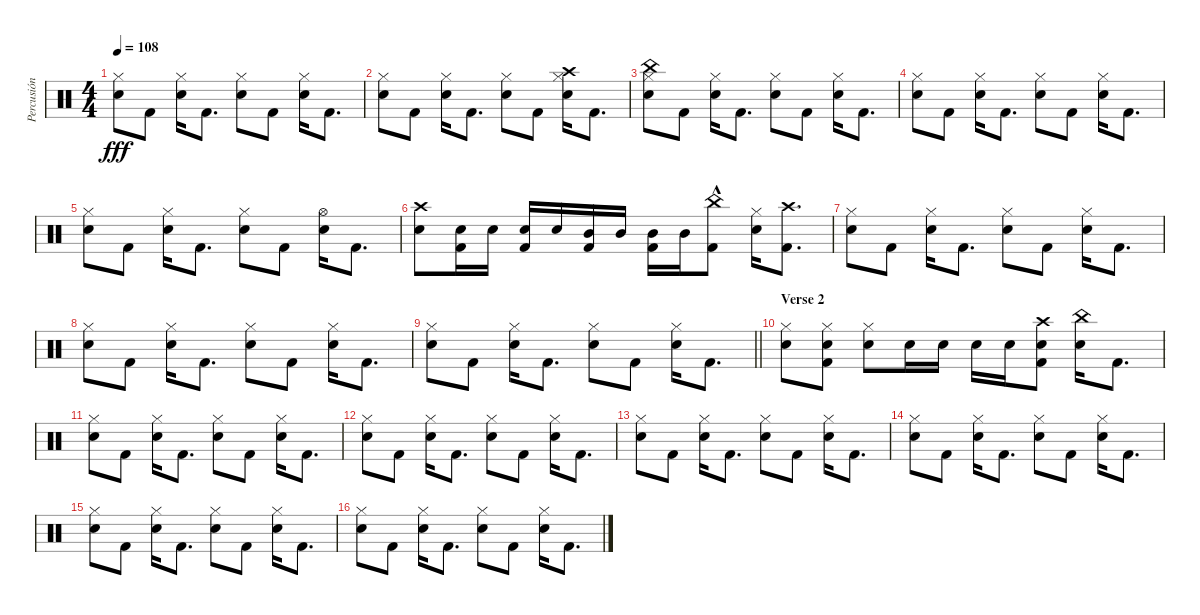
\track ("Percusión" "Percusión") {instrument percussion}
\staff {score}
\articulation defaults
\ts (4 4)
\tempo 108
\clef neutral
\ks c
("Snare (hit) 2" "Hi-Hat (closed)").8{dy fff} "Kick (hit) 2".8 ("Snare (hit) 2" "Hi-Hat (closed)").16 "Kick (hit) 2".8{d} ("Snare (hit) 2" "Hi-Hat (closed)").8 "Kick (hit) 2".8 ("Snare (hit) 2" "Hi-Hat (closed)").16 "Kick (hit) 2".8{d} |
("Snare (hit) 2" "Hi-Hat (closed)").8 "Kick (hit) 2".8 ("Snare (hit) 2" "Hi-Hat (closed)").16 "Kick (hit) 2".8{d} ("Snare (hit) 2" "Hi-Hat (closed)").8 "Kick (hit) 2".8 ("Snare (hit) 2" "Hi-Hat (closed)" "Crash high (hit)").16 "Kick (hit) 2".8{d} |
("Snare (hit) 2" "Hi-Hat (closed)" "China (hit)").8 "Kick (hit) 2".8 ("Snare (hit) 2" "Hi-Hat (closed)").16 "Kick (hit) 2".8{d} ("Snare (hit) 2" "Hi-Hat (closed)").8 "Kick (hit) 2".8 ("Snare (hit) 2" "Hi-Hat (closed)").16 "Kick (hit) 2".8{d} |
("Snare (hit) 2" "Hi-Hat (closed)").8 "Kick (hit) 2".8 ("Snare (hit) 2" "Hi-Hat (closed)").16 "Kick (hit) 2".8{d} ("Snare (hit) 2" "Hi-Hat (closed)").8 "Kick (hit) 2".8 ("Snare (hit) 2" "Hi-Hat (closed)").16 "Kick (hit) 2".8{d} |
("Snare (hit) 2" "Hi-Hat (closed)").8 "Kick (hit) 2".8 ("Snare (hit) 2" "Hi-Hat (closed)").16 "Kick (hit) 2".8{d} ("Snare (hit) 2" "Hi-Hat (closed)").8 "Kick (hit) 2".8 ("Snare (hit) 2" "Hi-Hat (open)").16 "Kick (hit) 2".8{d} |
("Snare (hit) 2" "Crash high (hit)").8 ("Snare (hit) 2" "Kick (hit) 2").16 "Snare (hit) 2".16 ("Snare (hit) 2" "Kick (hit) 2").16 "Snare (hit) 2".16 ("Mid Tom (hit)" "Kick (hit) 2").16 "Mid Tom (hit)".16 ("Mid Tom (hit)" "Kick (hit) 2").16 "Mid Tom (hit)".16 ("China (hit)"{hac} "Kick (hit) 2").8 ("Snare (hit) 2" "Hi-Hat (closed)").16 ("Kick (hit) 2" "Crash high (hit)").8{d} |
("Snare (hit) 2" "Hi-Hat (closed)").8 "Kick (hit) 2".8 ("Snare (hit) 2" "Hi-Hat (closed)").16 "Kick (hit) 2".8{d} ("Snare (hit) 2" "Hi-Hat (closed)").8 "Kick (hit) 2".8 ("Snare (hit) 2" "Hi-Hat (closed)").16 "Kick (hit) 2".8{d} |
("Snare (hit) 2" "Hi-Hat (closed)").8 "Kick (hit) 2".8 ("Snare (hit) 2" "Hi-Hat (closed)").16 "Kick (hit) 2".8{d} ("Snare (hit) 2" "Hi-Hat (closed)").8 "Kick (hit) 2".8 ("Snare (hit) 2" "Hi-Hat (closed)").16 "Kick (hit) 2".8{d} |
\barLineRight lightlight
("Snare (hit) 2" "Hi-Hat (closed)").8 "Kick (hit) 2".8 ("Snare (hit) 2" "Hi-Hat (closed)").16 "Kick (hit) 2".8{d} ("Snare (hit) 2" "Hi-Hat (closed)").8 "Kick (hit) 2".8 ("Snare (hit) 2" "Hi-Hat (closed)").16 "Kick (hit) 2".8{d} |
\section ("" "Verse 2")
("Snare (hit) 2" "Hi-Hat (closed)").8 ("Snare (hit) 2" "Hi-Hat (closed)" "Kick (hit) 2").8 ("Snare (hit) 2" "Hi-Hat (closed)").8 "Snare (hit) 2".16 "Snare (hit) 2".16 "Snare (hit) 2".16 "Snare (hit) 2".16 ("Snare (hit) 2" "Crash high (hit)" "Kick (hit) 2").8 ("Snare (hit) 2" "China (hit)").16 "Kick (hit) 2".8{d} |
("Snare (hit) 2" "Hi-Hat (closed)").8 "Kick (hit) 2".8 ("Snare (hit) 2" "Hi-Hat (closed)").16 "Kick (hit) 2".8{d} ("Snare (hit) 2" "Hi-Hat (closed)").8 "Kick (hit) 2".8 ("Snare (hit) 2" "Hi-Hat (closed)").16 "Kick (hit) 2".8{d} |
("Snare (hit) 2" "Hi-Hat (closed)").8 "Kick (hit) 2".8 ("Snare (hit) 2" "Hi-Hat (closed)").16 "Kick (hit) 2".8{d} ("Snare (hit) 2" "Hi-Hat (closed)").8 "Kick (hit) 2".8 ("Snare (hit) 2" "Hi-Hat (closed)").16 "Kick (hit) 2".8{d} |
("Snare (hit) 2" "Hi-Hat (closed)").8 "Kick (hit) 2".8 ("Snare (hit) 2" "Hi-Hat (closed)").16 "Kick (hit) 2".8{d} ("Snare (hit) 2" "Hi-Hat (closed)").8 "Kick (hit) 2".8 ("Snare (hit) 2" "Hi-Hat (closed)").16 "Kick (hit) 2".8{d} |
("Snare (hit) 2" "Hi-Hat (closed)").8 "Kick (hit) 2".8 ("Snare (hit) 2" "Hi-Hat (closed)").16 "Kick (hit) 2".8{d} ("Snare (hit) 2" "Hi-Hat (closed)").8 "Kick (hit) 2".8 ("Snare (hit) 2" "Hi-Hat (closed)").16 "Kick (hit) 2".8{d} |
("Snare (hit) 2" "Hi-Hat (closed)").8 "Kick (hit) 2".8 ("Snare (hit) 2" "Hi-Hat (closed)").16 "Kick (hit) 2".8{d} ("Snare (hit) 2" "Hi-Hat (closed)").8 "Kick (hit) 2".8 ("Snare (hit) 2" "Hi-Hat (closed)").16 "Kick (hit) 2".8{d} |
("Snare (hit) 2" "Hi-Hat (closed)").8 "Kick (hit) 2".8 ("Snare (hit) 2" "Hi-Hat (closed)").16 "Kick (hit) 2".8{d} ("Snare (hit) 2" "Hi-Hat (closed)").8 "Kick (hit) 2".8 ("Snare (hit) 2" "Hi-Hat (closed)").16 "Kick (hit) 2".8{d}
